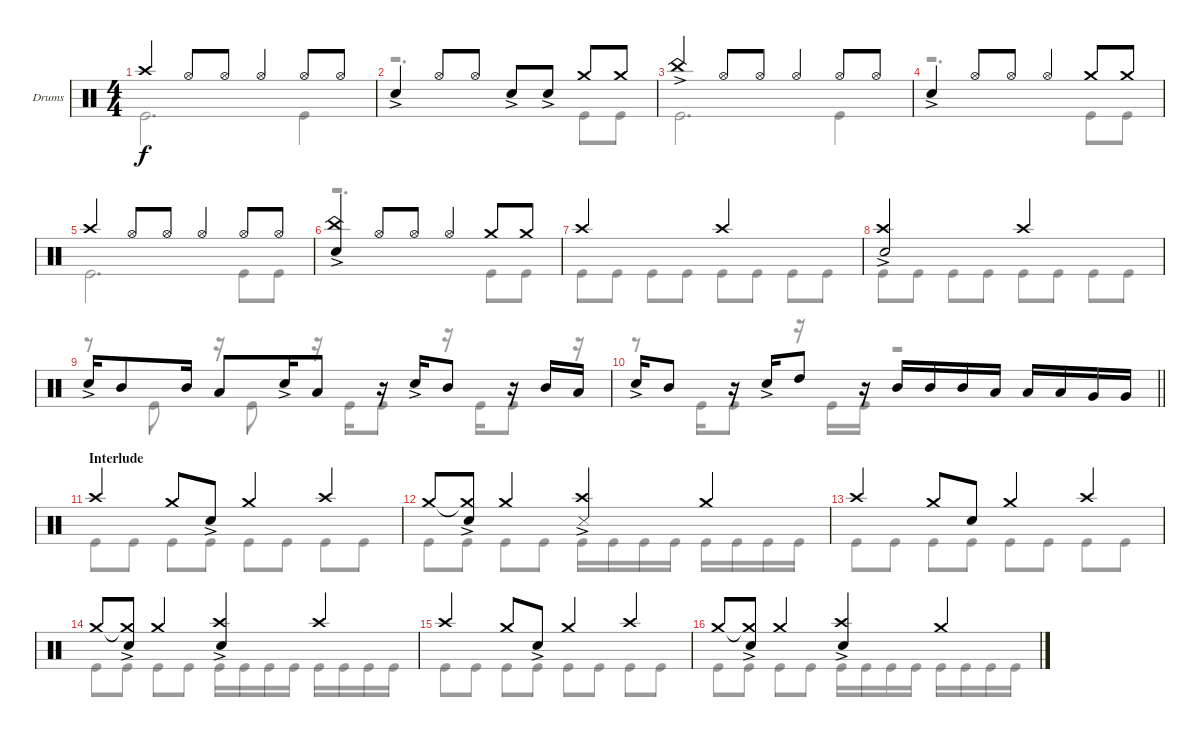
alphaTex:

\bracketExtendMode groupsimilarinstruments
\firstSystemTrackNameOrientation horizontal
\otherSystemsTrackNameOrientation horizontal
\track ("Drumkit" "Drums") {instrument percussion}
\staff {score}
\articulation defaults
\voice
\ts (4 4)
\tempo (184 hide)
\clef neutral
\ks c "Crash high (hit)".4{dy f} "Hi-Hat (open)".8 "Hi-Hat (open)".8 "Hi-Hat (open)".4 "Hi-Hat (open)".8 "Hi-Hat (open)".8
|
"Snare (hit) 2"{ac}.4 "Hi-Hat (open)".8 "Hi-Hat (open)".8 "Snare (hit) 2"{ac}.8 "Snare (hit) 2"{ac}.8 "Crash medium (hit)".8 "Crash medium (hit)".8 |
"China (hit)"{ac}.4 "Hi-Hat (open)".8 "Hi-Hat (open)".8 "Hi-Hat (open)".4 "Hi-Hat (open)".8 "Hi-Hat (open)".8 |
"Snare (hit) 2"{ac}.4 "Hi-Hat (open)".8 "Hi-Hat (open)".8 "Hi-Hat (open)".4 "Crash medium (hit)".8 "Crash medium (hit)".8 |
"Crash high (hit)".4 "Hi-Hat (open)".8 "Hi-Hat (open)".8 "Hi-Hat (open)".4 "Hi-Hat (open)".8 "Hi-Hat (open)".8 |
("China (hit)"{ac} "Snare (hit) 2"{ac}).4 "Hi-Hat (open)".8 "Hi-Hat (open)".8 "Hi-Hat (open)".4 "Crash medium (hit)".8 "Crash medium (hit)".8 |
"Crash high (hit)".2 "Crash high (hit)".2 |
("Crash high (hit)" "Snare (hit) 2"{ac}).2 "Crash high (hit)".2 |
"Snare (hit) 2"{ac}.16 "Mid Tom (hit)".8 "Mid Tom (hit)".16 "Low Tom (hit)".8 "Snare (hit) 2"{ac}.16 "Low Tom (hit)".8 r.16 "Snare (hit) 2"{ac}.16 "Mid Tom (hit)".8 r.16 "Mid Tom (hit)".16 "Low Tom (hit)".16 |
\tempo (184 "Driving Rock" 1 hide)
\barLineRight lightlight "Snare (hit) 2"{ac}.16 "Mid Tom (hit)".8
r.16 "Snare (hit) 2"{ac}.16 "High Tom (hit)".8 r.16 "Mid Tom (hit)".16 "Mid Tom (hit)".16 "Mid Tom (hit)".16 "Low Tom (hit)".16 "Low Tom (hit)".16 "Low Tom (hit)".16 "Very Low Tom (hit)".16 "Very Low Tom (hit)".16 |
\section ("" "Interlude")
\tempo (184 "Driving Rock" hide)
"Crash high (hit)".4 "Crash medium (hit)".8 "Snare (hit) 2"{ac}.8 "Crash medium (hit)".4 "Crash high (hit)".4 |
"Crash medium (hit)".8 ("Crash medium (hit)"{t} "Snare (hit) 2"{ac}).8 "Crash medium (hit)".4 ("Crash high (hit)" "Snare (side stick) 3"{ac}).4 "Crash medium (hit)".4 |
"Crash high (hit)".4 "Crash medium (hit)".8 "Snare (hit) 2".8 "Crash medium (hit)".4 "Crash high (hit)".4 |
"Crash medium (hit)".8 ("Crash medium (hit)"{t} "Snare (hit) 2"{ac}).8 "Crash medium (hit)".4 ("Crash high (hit)" "Snare (hit) 2"{ac}).4 "Crash high (hit)".4 |
"Crash high (hit)".4 "Crash medium (hit)".8 "Snare (hit) 2"{ac}.8 "Crash medium (hit)".4 "Crash high (hit)".4 |
"Crash medium (hit)".8 ("Crash medium (hit)"{t} "Snare (hit) 2"{ac}).8 "Crash medium (hit)".4 ("Crash high (hit)" "Snare (hit) 2"{ac}).4 "Crash medium (hit)".4
\voice
\clef neutral
\ottava regular
\simile none
\ks c "Kick (hit)".2{d dy f} "Kick (hit)".4
|
r.2{d} "Kick (hit)".8 "Kick (hit)".8 |
"Kick (hit)".2{d} "Kick (hit)".4 |
r.2{d} "Kick (hit)".8 "Kick (hit)".8 |
"Kick (hit)".2{d} "Kick (hit)".8 "Kick (hit)".8 |
r.2{d} "Kick (hit)".8 "Kick (hit)".8 |
"Kick (hit)".8 "Kick (hit)".8 "Kick (hit)".8 "Kick (hit)".8 "Kick (hit)".8 "Kick (hit)".8 "Kick (hit)".8 "Kick (hit)".8 |
"Kick (hit)".8 "Kick (hit)".8 "Kick (hit)".8 "Kick (hit)".8 "Kick (hit)".8 "Kick (hit)".8 "Kick (hit)".8 "Kick (hit)".8 |
r.8 "Kick (hit)".8 r.16 "Kick (hit)".8 r.16 "Kick (hit)".16 "Kick (hit)".8 r.16 "Kick (hit)".16 "Kick (hit)".8 r.16 |
\barLineRight lightlight
r.8 "Kick (hit)".16 "Kick (hit)".8 r.16 "Kick (hit)".16 "Kick (hit)".16 r.2 |
"Kick (hit)".8 "Kick (hit)".8 "Kick (hit)".8 "Kick (hit)".8 "Kick (hit)".8 "Kick (hit)".8 "Kick (hit)".8 "Kick (hit)".8 |
"Kick (hit)".8 "Kick (hit)".8 "Kick (hit)".8 "Kick (hit)".8 "Kick (hit)".16 "Kick (hit)".16 "Kick (hit)".16 "Kick (hit)".16 "Kick (hit)".16 "Kick (hit)".16 "Kick (hit)".16 "Kick (hit)".16 |
"Kick (hit)".8 "Kick (hit)".8 "Kick (hit)".8 "Kick (hit)".8 "Kick (hit)".8 "Kick (hit)".8 "Kick (hit)".8 "Kick (hit)".8 |
"Kick (hit)".8 "Kick (hit)".8 "Kick (hit)".8 "Kick (hit)".8 "Kick (hit)".16 "Kick (hit)".16 "Kick (hit)".16 "Kick (hit)".16 "Kick (hit)".16 "Kick (hit)".16 "Kick (hit)".16 "Kick (hit)".16 |
"Kick (hit)".8 "Kick (hit)".8 "Kick (hit)".8 "Kick (hit)".8 "Kick (hit)".8 "Kick (hit)".8 "Kick (hit)".8 "Kick (hit)".8 |
"Kick (hit)".8 "Kick (hit)".8 "Kick (hit)".8 "Kick (hit)".8 "Kick (hit)".16 "Kick (hit)".16 "Kick (hit)".16 "Kick (hit)".16 "Kick (hit)".16 "Kick (hit)".16 "Kick (hit)".16 "Kick (hit)".16
